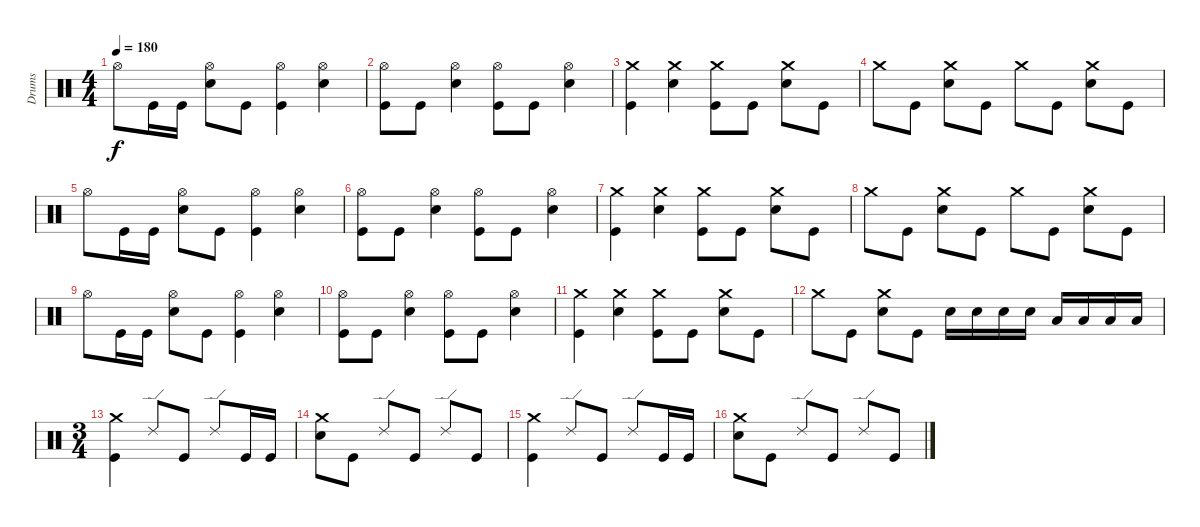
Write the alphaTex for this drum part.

\track ("Drums" "Drums") {instrument percussion}
\staff {score}
\articulation defaults
\ts (4 4)
\tempo 180
\clef neutral
\ks c "Hi-Hat (open)".8{dy f} "Kick (hit)".16 "Kick (hit)".16
("Hi-Hat (open)" "Electric Snare (hit)").8 "Kick (hit)".8 ("Hi-Hat (open)" "Kick (hit)").4 ("Hi-Hat (open)" "Electric Snare (hit)").4 |
("Hi-Hat (open)" "Kick (hit)").8 "Kick (hit)".8 ("Hi-Hat (open)" "Electric Snare (hit)").4 ("Hi-Hat (open)" "Kick (hit)").8 "Kick (hit)".8 ("Hi-Hat (open)" "Electric Snare (hit)").4 |
("Crash medium (hit)" "Kick (hit)").4 ("Crash medium (hit)" "Electric Snare (hit)").4 ("Crash medium (hit)" "Kick (hit)").8 "Kick (hit)".8 ("Crash medium (hit)" "Electric Snare (hit)").8 "Kick (hit)".8 |
"Crash medium (hit)".8 "Kick (hit)".8 ("Crash medium (hit)" "Electric Snare (hit)").8 "Kick (hit)".8 "Crash medium (hit)".8 "Kick (hit)".8 ("Crash medium (hit)" "Electric Snare (hit)").8 "Kick (hit)".8 |
"Hi-Hat (open)".8 "Kick (hit)".16 "Kick (hit)".16 ("Hi-Hat (open)" "Electric Snare (hit)").8 "Kick (hit)".8 ("Hi-Hat (open)" "Kick (hit)").4 ("Hi-Hat (open)" "Electric Snare (hit)").4 |
("Hi-Hat (open)" "Kick (hit)").8 "Kick (hit)".8 ("Hi-Hat (open)" "Electric Snare (hit)").4 ("Hi-Hat (open)" "Kick (hit)").8 "Kick (hit)".8 ("Hi-Hat (open)" "Electric Snare (hit)").4 |
("Crash medium (hit)" "Kick (hit)").4 ("Crash medium (hit)" "Electric Snare (hit)").4 ("Crash medium (hit)" "Kick (hit)").8 "Kick (hit)".8 ("Crash medium (hit)" "Electric Snare (hit)").8 "Kick (hit)".8 |
"Crash medium (hit)".8 "Kick (hit)".8 ("Crash medium (hit)" "Electric Snare (hit)").8 "Kick (hit)".8 "Crash medium (hit)".8 "Kick (hit)".8 ("Crash medium (hit)" "Electric Snare (hit)").8 "Kick (hit)".8 |
"Hi-Hat (open)".8 "Kick (hit)".16 "Kick (hit)".16 ("Hi-Hat (open)" "Electric Snare (hit)").8 "Kick (hit)".8 ("Hi-Hat (open)" "Kick (hit)").4 ("Hi-Hat (open)" "Electric Snare (hit)").4 |
("Hi-Hat (open)" "Kick (hit)").8 "Kick (hit)".8 ("Hi-Hat (open)" "Electric Snare (hit)").4 ("Hi-Hat (open)" "Kick (hit)").8 "Kick (hit)".8 ("Hi-Hat (open)" "Electric Snare (hit)").4 |
("Crash medium (hit)" "Kick (hit)").4 ("Crash medium (hit)" "Electric Snare (hit)").4 ("Crash medium (hit)" "Kick (hit)").8 "Kick (hit)".8 ("Crash medium (hit)" "Electric Snare (hit)").8 "Kick (hit)".8 |
"Crash medium (hit)".8 "Kick (hit)".8 ("Crash medium (hit)" "Electric Snare (hit)").8 "Kick (hit)".8 "Electric Snare (hit)".16 "Electric Snare (hit)".16 "Electric Snare (hit)".16 "Electric Snare (hit)".16 "Low Tom (hit)".16 "Low Tom (hit)".16 "Low Tom (hit)".16 "Low Tom (hit)".16 |
\ts (3 4)
("Crash medium (hit)" "Kick (hit)").4 "Ride (edge) 2".8 "Kick (hit)".8 "Ride (edge) 2".8 "Kick (hit)".16 "Kick (hit)".16 |
("Crash medium (hit)" "Electric Snare (hit)").8 "Kick (hit)".8 "Ride (edge) 2".8 "Kick (hit)".8 "Ride (edge) 2".8 "Kick (hit)".8 |
("Crash medium (hit)" "Kick (hit)").4 "Ride (edge) 2".8 "Kick (hit)".8 "Ride (edge) 2".8 "Kick (hit)".16 "Kick (hit)".16 |
("Crash medium (hit)" "Electric Snare (hit)").8 "Kick (hit)".8 "Ride (edge) 2".8 "Kick (hit)".8 "Ride (edge) 2".8 "Kick (hit)".8
